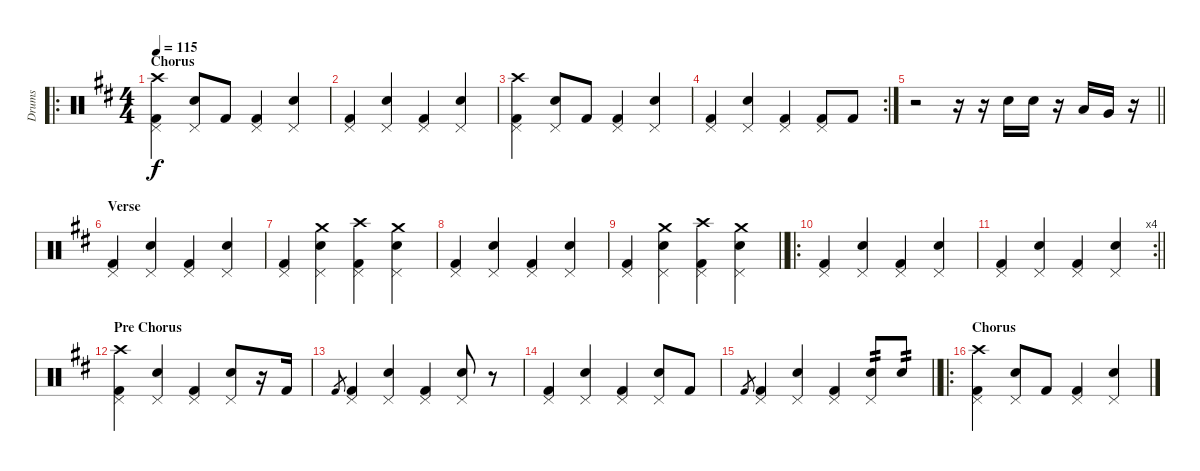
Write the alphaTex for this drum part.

\track ("Drums" "Drums") {instrument percussion}
\staff {score}
\articulation defaults
\ro
\ts (4 4)
\section ("" "Chorus")
\tempo 115
\clef neutral
\ks d
("Kick (hit) 2" "Pedal Hi-Hat (hit)" "Crash high (hit)").4{dy f} ("Snare (hit) 2" "Pedal Hi-Hat (hit)").8 "Kick (hit) 2".8 ("Kick (hit) 2" "Pedal Hi-Hat (hit)").4 ("Snare (hit) 2" "Pedal Hi-Hat (hit)").4 |
("Kick (hit) 2" "Pedal Hi-Hat (hit)").4 ("Snare (hit) 2" "Pedal Hi-Hat (hit)").4 ("Kick (hit) 2" "Pedal Hi-Hat (hit)").4 ("Snare (hit) 2" "Pedal Hi-Hat (hit)").4 |
("Kick (hit) 2" "Pedal Hi-Hat (hit)" "Crash high (hit)").4 ("Snare (hit) 2" "Pedal Hi-Hat (hit)").8 "Kick (hit) 2".8 ("Kick (hit) 2" "Pedal Hi-Hat (hit)").4 ("Snare (hit) 2" "Pedal Hi-Hat (hit)").4 |
\rc 2
("Kick (hit) 2" "Pedal Hi-Hat (hit)").4 ("Snare (hit) 2" "Pedal Hi-Hat (hit)").4 ("Kick (hit) 2" "Pedal Hi-Hat (hit)").4 ("Kick (hit) 2" "Pedal Hi-Hat (hit)").8 "Kick (hit) 2".8 |
\barLineRight lightlight
r.2 r.16 r.16 "Snare (hit) 2".16 "Snare (hit) 2".16 r.16 "Low Tom (hit)".16 "Very Low Tom (hit)".16 r.16 |
\section ("" "Verse")
("Kick (hit) 2" "Pedal Hi-Hat (hit)").4 ("Snare (hit) 2" "Pedal Hi-Hat (hit)").4 ("Kick (hit) 2" "Pedal Hi-Hat (hit)").4 ("Snare (hit) 2" "Pedal Hi-Hat (hit)").4 |
("Kick (hit) 2" "Pedal Hi-Hat (hit)").4 ("Snare (hit) 2" "Pedal Hi-Hat (hit)" "Crash medium (hit)").4 ("Kick (hit) 2" "Pedal Hi-Hat (hit)" "Crash high (hit)").4 ("Snare (hit) 2" "Pedal Hi-Hat (hit)" "Crash medium (hit)").4 |
("Kick (hit) 2" "Pedal Hi-Hat (hit)").4 ("Snare (hit) 2" "Pedal Hi-Hat (hit)").4 ("Kick (hit) 2" "Pedal Hi-Hat (hit)").4 ("Snare (hit) 2" "Pedal Hi-Hat (hit)").4 |
\barLineRight lightlight
("Kick (hit) 2" "Pedal Hi-Hat (hit)").4 ("Snare (hit) 2" "Pedal Hi-Hat (hit)" "Crash medium (hit)").4 ("Kick (hit) 2" "Pedal Hi-Hat (hit)" "Crash high (hit)").4 ("Snare (hit) 2" "Pedal Hi-Hat (hit)" "Crash medium (hit)").4 |
\ro
("Kick (hit) 2" "Pedal Hi-Hat (hit)").4 ("Snare (hit) 2" "Pedal Hi-Hat (hit)").4 ("Kick (hit) 2" "Pedal Hi-Hat (hit)").4 ("Snare (hit) 2" "Pedal Hi-Hat (hit)").4 |
\rc 4
\barLineRight lightlight
("Kick (hit) 2" "Pedal Hi-Hat (hit)").4 ("Snare (hit) 2" "Pedal Hi-Hat (hit)").4 ("Kick (hit) 2" "Pedal Hi-Hat (hit)").4 ("Snare (hit) 2" "Pedal Hi-Hat (hit)").4 |
\section ("" "Pre Chorus")
("Kick (hit) 2" "Pedal Hi-Hat (hit)" "Crash high (hit)").4 ("Snare (hit) 2" "Pedal Hi-Hat (hit)").4 ("Kick (hit) 2" "Pedal Hi-Hat (hit)").4 ("Snare (hit) 2" "Pedal Hi-Hat (hit)").8 r.16 "Kick (hit) 2".16 |
"Kick (hit) 2".8{gr} ("Kick (hit) 2" "Pedal Hi-Hat (hit)").4 ("Snare (hit) 2" "Pedal Hi-Hat (hit)").4 ("Kick (hit) 2" "Pedal Hi-Hat (hit)").4 ("Snare (hit) 2" "Pedal Hi-Hat (hit)").8 r.8 |
("Kick (hit) 2" "Pedal Hi-Hat (hit)").4 ("Snare (hit) 2" "Pedal Hi-Hat (hit)").4 ("Kick (hit) 2" "Pedal Hi-Hat (hit)").4 ("Snare (hit) 2" "Pedal Hi-Hat (hit)").8 "Kick (hit) 2".8 |
\barLineRight lightlight "Kick (hit) 2".8{gr}
("Kick (hit) 2" "Pedal Hi-Hat (hit)").4 ("Snare (hit) 2" "Pedal Hi-Hat (hit)").4 ("Kick (hit) 2" "Pedal Hi-Hat (hit)").4 ("Snare (hit) 2" "Pedal Hi-Hat (hit)").8{tp 2} "Snare (hit) 2".8{tp 2} |
\ro
\section ("" "Chorus")
("Kick (hit) 2" "Pedal Hi-Hat (hit)" "Crash high (hit)").4 ("Snare (hit) 2" "Pedal Hi-Hat (hit)").8 "Kick (hit) 2".8 ("Kick (hit) 2" "Pedal Hi-Hat (hit)").4 ("Snare (hit) 2" "Pedal Hi-Hat (hit)").4
